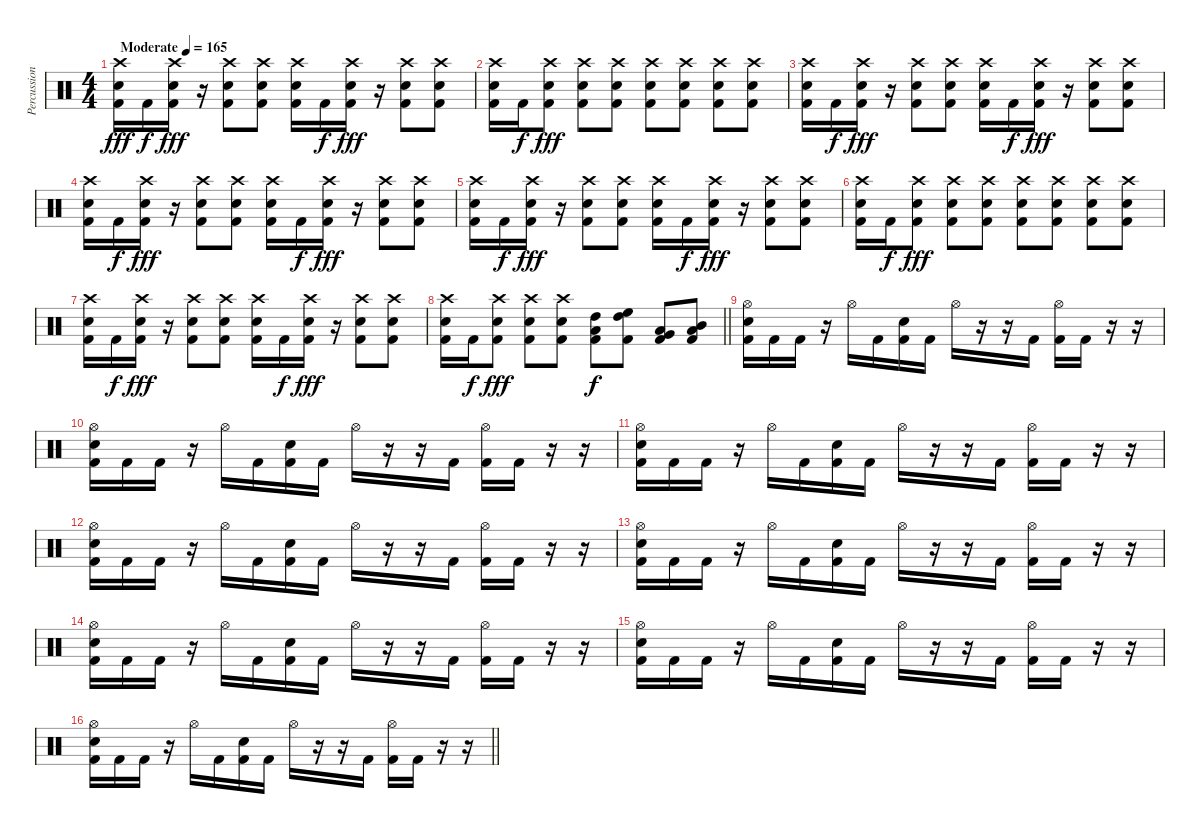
\track ("Percussion" "Percussion") {instrument percussion}
\staff {score}
\articulation defaults
\ts (4 4)
\tempo (165 "Moderate")
\clef neutral
\ks c
("Crash high (hit)" "Electric Snare (hit)" "Kick (hit) 2").16{dy fff} "Kick (hit) 2".16{dy f} ("Crash high (hit)" "Electric Snare (hit)" "Kick (hit) 2").16{dy fff} r.16 ("Crash high (hit)" "Electric Snare (hit)" "Kick (hit) 2").8 ("Crash high (hit)" "Electric Snare (hit)" "Kick (hit) 2").8 ("Crash high (hit)" "Electric Snare (hit)" "Kick (hit) 2").16 "Kick (hit) 2".16{dy f} ("Crash high (hit)" "Electric Snare (hit)" "Kick (hit) 2").16{dy fff} r.16 ("Crash high (hit)" "Electric Snare (hit)" "Kick (hit) 2").8 ("Crash high (hit)" "Electric Snare (hit)" "Kick (hit) 2").8 |
("Crash high (hit)" "Electric Snare (hit)" "Kick (hit) 2").16 "Kick (hit) 2".16{dy f} ("Crash high (hit)" "Electric Snare (hit)" "Kick (hit) 2").8{dy fff} ("Crash high (hit)" "Electric Snare (hit)" "Kick (hit) 2").8 ("Crash high (hit)" "Electric Snare (hit)" "Kick (hit) 2").8 ("Crash high (hit)" "Electric Snare (hit)" "Kick (hit) 2").8 ("Crash high (hit)" "Electric Snare (hit)" "Kick (hit) 2").8 ("Crash high (hit)" "Electric Snare (hit)" "Kick (hit) 2").8 ("Crash high (hit)" "Electric Snare (hit)" "Kick (hit) 2").8 |
("Crash high (hit)" "Electric Snare (hit)" "Kick (hit) 2").16 "Kick (hit) 2".16{dy f} ("Crash high (hit)" "Electric Snare (hit)" "Kick (hit) 2").16{dy fff} r.16 ("Crash high (hit)" "Electric Snare (hit)" "Kick (hit) 2").8 ("Crash high (hit)" "Electric Snare (hit)" "Kick (hit) 2").8 ("Crash high (hit)" "Electric Snare (hit)" "Kick (hit) 2").16 "Kick (hit) 2".16{dy f} ("Crash high (hit)" "Electric Snare (hit)" "Kick (hit) 2").16{dy fff} r.16 ("Crash high (hit)" "Electric Snare (hit)" "Kick (hit) 2").8 ("Crash high (hit)" "Electric Snare (hit)" "Kick (hit) 2").8 |
("Crash high (hit)" "Electric Snare (hit)" "Kick (hit) 2").16 "Kick (hit) 2".16{dy f} ("Crash high (hit)" "Electric Snare (hit)" "Kick (hit) 2").16{dy fff} r.16 ("Crash high (hit)" "Electric Snare (hit)" "Kick (hit) 2").8 ("Crash high (hit)" "Electric Snare (hit)" "Kick (hit) 2").8 ("Crash high (hit)" "Electric Snare (hit)" "Kick (hit) 2").16 "Kick (hit) 2".16{dy f} ("Crash high (hit)" "Electric Snare (hit)" "Kick (hit) 2").16{dy fff} r.16 ("Crash high (hit)" "Electric Snare (hit)" "Kick (hit) 2").8 ("Crash high (hit)" "Electric Snare (hit)" "Kick (hit) 2").8 |
("Crash high (hit)" "Electric Snare (hit)" "Kick (hit) 2").16 "Kick (hit) 2".16{dy f} ("Crash high (hit)" "Electric Snare (hit)" "Kick (hit) 2").16{dy fff} r.16 ("Crash high (hit)" "Electric Snare (hit)" "Kick (hit) 2").8 ("Crash high (hit)" "Electric Snare (hit)" "Kick (hit) 2").8 ("Crash high (hit)" "Electric Snare (hit)" "Kick (hit) 2").16 "Kick (hit) 2".16{dy f} ("Crash high (hit)" "Electric Snare (hit)" "Kick (hit) 2").16{dy fff} r.16 ("Crash high (hit)" "Electric Snare (hit)" "Kick (hit) 2").8 ("Crash high (hit)" "Electric Snare (hit)" "Kick (hit) 2").8 |
("Crash high (hit)" "Electric Snare (hit)" "Kick (hit) 2").16 "Kick (hit) 2".16{dy f} ("Crash high (hit)" "Electric Snare (hit)" "Kick (hit) 2").8{dy fff} ("Crash high (hit)" "Electric Snare (hit)" "Kick (hit) 2").8 ("Crash high (hit)" "Electric Snare (hit)" "Kick (hit) 2").8 ("Crash high (hit)" "Electric Snare (hit)" "Kick (hit) 2").8 ("Crash high (hit)" "Electric Snare (hit)" "Kick (hit) 2").8 ("Crash high (hit)" "Electric Snare (hit)" "Kick (hit) 2").8 ("Crash high (hit)" "Electric Snare (hit)" "Kick (hit) 2").8 |
("Crash high (hit)" "Electric Snare (hit)" "Kick (hit) 2").16 "Kick (hit) 2".16{dy f} ("Crash high (hit)" "Electric Snare (hit)" "Kick (hit) 2").16{dy fff} r.16 ("Crash high (hit)" "Electric Snare (hit)" "Kick (hit) 2").8 ("Crash high (hit)" "Electric Snare (hit)" "Kick (hit) 2").8 ("Crash high (hit)" "Electric Snare (hit)" "Kick (hit) 2").16 "Kick (hit) 2".16{dy f} ("Crash high (hit)" "Electric Snare (hit)" "Kick (hit) 2").16{dy fff} r.16 ("Crash high (hit)" "Electric Snare (hit)" "Kick (hit) 2").8 ("Crash high (hit)" "Electric Snare (hit)" "Kick (hit) 2").8 |
\barLineRight lightlight
("Crash high (hit)" "Electric Snare (hit)" "Kick (hit) 2").16 "Kick (hit) 2".16{dy f} ("Crash high (hit)" "Electric Snare (hit)" "Kick (hit) 2").8{dy fff} ("Crash high (hit)" "Electric Snare (hit)" "Kick (hit) 2").8 ("Crash high (hit)" "Electric Snare (hit)" "Kick (hit) 2").8 ("Low Tom (hit)" "High Tom (hit)" "Kick (hit) 2").8{dy f} ("High Tom (hit)" "High Floor Tom (hit)" "Kick (hit) 2").8 ("Low Tom (hit)" "Very Low Tom (hit)" "Kick (hit) 2").8 ("Low Tom (hit)" "Mid Tom (hit)" "Kick (hit) 2").8 |
("Hi-Hat (open)" "Electric Snare (hit)" "Kick (hit) 2").16 "Kick (hit) 2".16 "Kick (hit) 2".16 r.16 "Hi-Hat (open)".16 "Kick (hit) 2".16 ("Electric Snare (hit)" "Kick (hit) 2").16 "Kick (hit) 2".16 "Hi-Hat (open)".16 r.16 r.16 "Kick (hit) 2".16 ("Hi-Hat (open)" "Kick (hit) 2").16 "Kick (hit) 2".16 r.16 r.16 |
("Hi-Hat (open)" "Electric Snare (hit)" "Kick (hit) 2").16 "Kick (hit) 2".16 "Kick (hit) 2".16 r.16 "Hi-Hat (open)".16 "Kick (hit) 2".16 ("Electric Snare (hit)" "Kick (hit) 2").16 "Kick (hit) 2".16 "Hi-Hat (open)".16 r.16 r.16 "Kick (hit) 2".16 ("Hi-Hat (open)" "Kick (hit) 2").16 "Kick (hit) 2".16 r.16 r.16 |
("Hi-Hat (open)" "Electric Snare (hit)" "Kick (hit) 2").16 "Kick (hit) 2".16 "Kick (hit) 2".16 r.16 "Hi-Hat (open)".16 "Kick (hit) 2".16 ("Electric Snare (hit)" "Kick (hit) 2").16 "Kick (hit) 2".16 "Hi-Hat (open)".16 r.16 r.16 "Kick (hit) 2".16 ("Hi-Hat (open)" "Kick (hit) 2").16 "Kick (hit) 2".16 r.16 r.16 |
("Hi-Hat (open)" "Electric Snare (hit)" "Kick (hit) 2").16 "Kick (hit) 2".16 "Kick (hit) 2".16 r.16 "Hi-Hat (open)".16 "Kick (hit) 2".16 ("Electric Snare (hit)" "Kick (hit) 2").16 "Kick (hit) 2".16 "Hi-Hat (open)".16 r.16 r.16 "Kick (hit) 2".16 ("Hi-Hat (open)" "Kick (hit) 2").16 "Kick (hit) 2".16 r.16 r.16 |
("Hi-Hat (open)" "Electric Snare (hit)" "Kick (hit) 2").16 "Kick (hit) 2".16 "Kick (hit) 2".16 r.16 "Hi-Hat (open)".16 "Kick (hit) 2".16 ("Electric Snare (hit)" "Kick (hit) 2").16 "Kick (hit) 2".16 "Hi-Hat (open)".16 r.16 r.16 "Kick (hit) 2".16 ("Hi-Hat (open)" "Kick (hit) 2").16 "Kick (hit) 2".16 r.16 r.16 |
("Hi-Hat (open)" "Electric Snare (hit)" "Kick (hit) 2").16 "Kick (hit) 2".16 "Kick (hit) 2".16 r.16 "Hi-Hat (open)".16 "Kick (hit) 2".16 ("Electric Snare (hit)" "Kick (hit) 2").16 "Kick (hit) 2".16 "Hi-Hat (open)".16 r.16 r.16 "Kick (hit) 2".16 ("Hi-Hat (open)" "Kick (hit) 2").16 "Kick (hit) 2".16 r.16 r.16 |
("Hi-Hat (open)" "Electric Snare (hit)" "Kick (hit) 2").16 "Kick (hit) 2".16 "Kick (hit) 2".16 r.16 "Hi-Hat (open)".16 "Kick (hit) 2".16 ("Electric Snare (hit)" "Kick (hit) 2").16 "Kick (hit) 2".16 "Hi-Hat (open)".16 r.16 r.16 "Kick (hit) 2".16 ("Hi-Hat (open)" "Kick (hit) 2").16 "Kick (hit) 2".16 r.16 r.16 |
\barLineRight lightlight
("Hi-Hat (open)" "Electric Snare (hit)" "Kick (hit) 2").16 "Kick (hit) 2".16 "Kick (hit) 2".16 r.16 "Hi-Hat (open)".16 "Kick (hit) 2".16 ("Electric Snare (hit)" "Kick (hit) 2").16 "Kick (hit) 2".16 "Hi-Hat (open)".16 r.16 r.16 "Kick (hit) 2".16 ("Hi-Hat (open)" "Kick (hit) 2").16 "Kick (hit) 2".16 r.16 r.16
